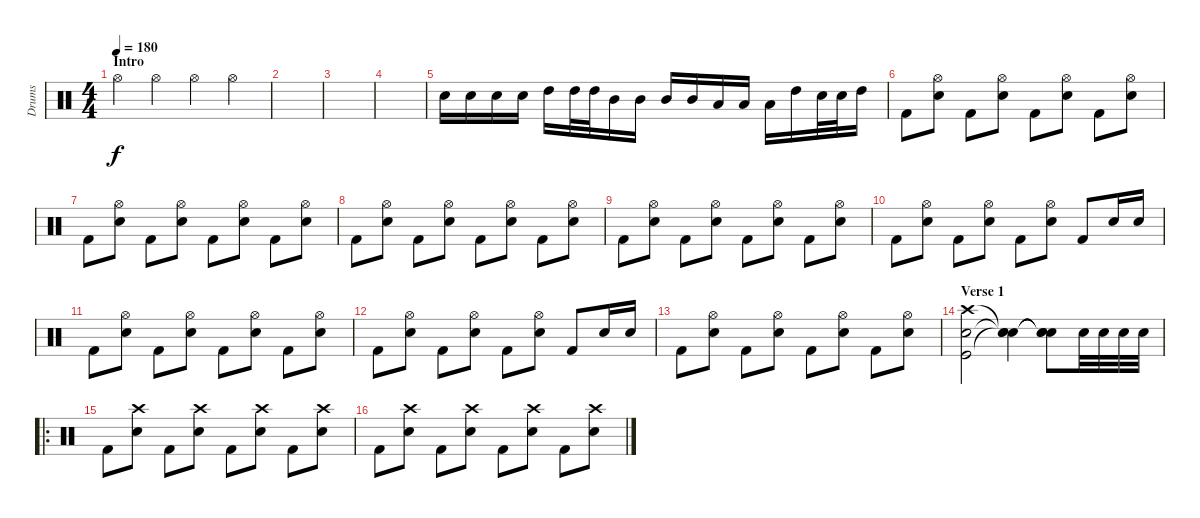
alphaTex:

\track ("Drums" "Drums") {instrument percussion}
\staff {score}
\articulation defaults
\ts (4 4)
\section ("" "Intro")
\tempo 180
\clef neutral
\ks c "Hi-Hat (open)".4{dy f} "Hi-Hat (open)".4 "Hi-Hat (open)".4 "Hi-Hat (open)".4
|
|
|
|
"Electric Snare (hit)".16 "Electric Snare (hit)".16 "Electric Snare (hit)".16 "Electric Snare (hit)".16 "High Tom (hit)".16 "High Tom (hit)".32 "High Tom (hit)".32 "Mid Tom (hit)".16 "Mid Tom (hit)".16 "Mid Tom (hit)".16 "Mid Tom (hit)".16 "Low Tom (hit)".16 "Low Tom (hit)".16 "Low Tom (hit)".16 "High Tom (hit)".16 "Electric Snare (hit)".32 "Electric Snare (hit)".32 "High Tom (hit)".16 |
"Kick (hit) 2".8 ("Hi-Hat (open)" "Electric Snare (hit)").8 "Kick (hit) 2".8 ("Hi-Hat (open)" "Electric Snare (hit)").8 "Kick (hit) 2".8 ("Hi-Hat (open)" "Electric Snare (hit)").8 "Kick (hit) 2".8 ("Hi-Hat (open)" "Electric Snare (hit)").8 |
"Kick (hit) 2".8 ("Hi-Hat (open)" "Electric Snare (hit)").8 "Kick (hit) 2".8 ("Hi-Hat (open)" "Electric Snare (hit)").8 "Kick (hit) 2".8 ("Hi-Hat (open)" "Electric Snare (hit)").8 "Kick (hit) 2".8 ("Hi-Hat (open)" "Electric Snare (hit)").8 |
"Kick (hit) 2".8 ("Hi-Hat (open)" "Electric Snare (hit)").8 "Kick (hit) 2".8 ("Hi-Hat (open)" "Electric Snare (hit)").8 "Kick (hit) 2".8 ("Hi-Hat (open)" "Electric Snare (hit)").8 "Kick (hit) 2".8 ("Hi-Hat (open)" "Electric Snare (hit)").8 |
"Kick (hit) 2".8 ("Hi-Hat (open)" "Electric Snare (hit)").8 "Kick (hit) 2".8 ("Hi-Hat (open)" "Electric Snare (hit)").8 "Kick (hit) 2".8 ("Hi-Hat (open)" "Electric Snare (hit)").8 "Kick (hit) 2".8 ("Hi-Hat (open)" "Electric Snare (hit)").8 |
"Kick (hit) 2".8 ("Hi-Hat (open)" "Electric Snare (hit)").8 "Kick (hit) 2".8 ("Hi-Hat (open)" "Electric Snare (hit)").8 "Kick (hit) 2".8 ("Hi-Hat (open)" "Electric Snare (hit)").8 "Kick (hit) 2".8 "Electric Snare (hit)".16 "Electric Snare (hit)".16 |
"Kick (hit) 2".8 ("Hi-Hat (open)" "Electric Snare (hit)").8 "Kick (hit) 2".8 ("Hi-Hat (open)" "Electric Snare (hit)").8 "Kick (hit) 2".8 ("Hi-Hat (open)" "Electric Snare (hit)").8 "Kick (hit) 2".8 ("Hi-Hat (open)" "Electric Snare (hit)").8 |
"Kick (hit) 2".8 ("Hi-Hat (open)" "Electric Snare (hit)").8 "Kick (hit) 2".8 ("Hi-Hat (open)" "Electric Snare (hit)").8 "Kick (hit) 2".8 ("Hi-Hat (open)" "Electric Snare (hit)").8 "Kick (hit) 2".8 "Electric Snare (hit)".16 "Electric Snare (hit)".16 |
"Kick (hit) 2".8 ("Hi-Hat (open)" "Electric Snare (hit)").8 "Kick (hit) 2".8 ("Hi-Hat (open)" "Electric Snare (hit)").8 "Kick (hit) 2".8 ("Hi-Hat (open)" "Electric Snare (hit)").8 "Kick (hit) 2".8 ("Hi-Hat (open)" "Electric Snare (hit)").8 |
\section ("" "Verse 1")
("Crash high (hit)" "Kick (hit)" "Snare (hit) 2").2 ("Snare (hit)"{t} "Snare (hit)"{t} "Snare (hit)"{t}).4 ("Snare (hit)"{t} "Snare (hit)"{t} "Snare (hit)"{t}).8 "Snare (hit) 2".32 "Snare (hit) 2".32 "Snare (hit) 2".32 "Snare (hit) 2".32 |
\ro "Kick (hit) 2".8
("Crash high (hit)" "Snare (hit) 2").8 "Kick (hit) 2".8 ("Crash high (hit)" "Snare (hit) 2").8 "Kick (hit) 2".8 ("Crash high (hit)" "Snare (hit) 2").8 "Kick (hit) 2".8 ("Crash high (hit)" "Snare (hit) 2").8 |
"Kick (hit) 2".8 ("Crash high (hit)" "Snare (hit) 2").8 "Kick (hit) 2".8 ("Crash high (hit)" "Snare (hit) 2").8 "Kick (hit) 2".8 ("Crash high (hit)" "Snare (hit) 2").8 "Kick (hit) 2".8 ("Crash high (hit)" "Snare (hit) 2").8
